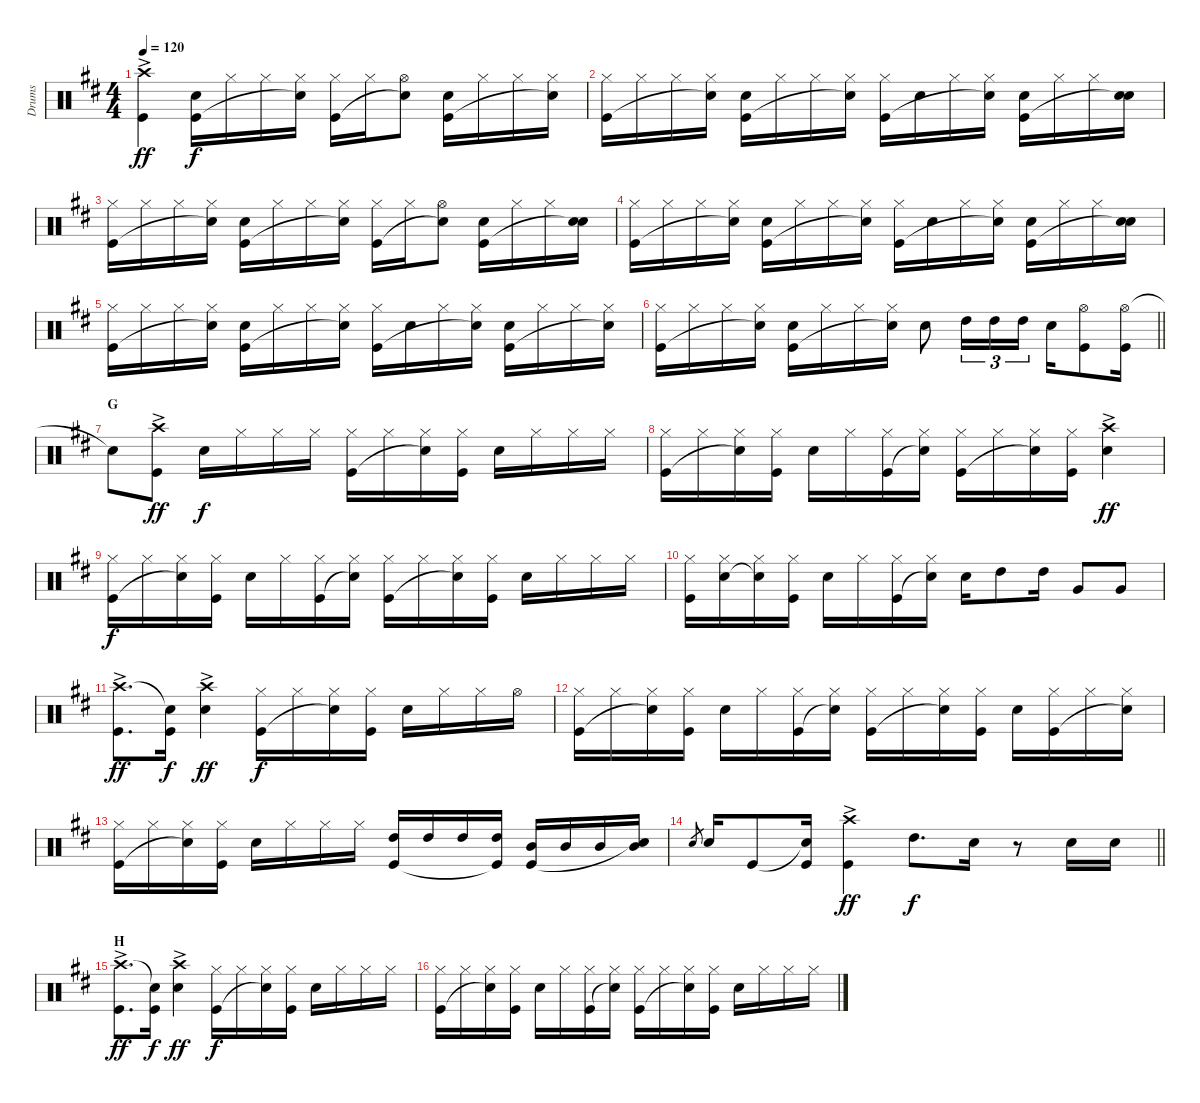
\track ("Drums" "Drums") {instrument percussion}
\staff {score}
\articulation defaults
\ts (4 4)
\tempo 120
\clef neutral
\ks d
("Crash high (hit)"{ac} "Kick (hit)").4{dy ff} ("Snare (hit) 2" "Kick (hit)").16{dy f} "Hi-Hat (closed)".16 "Hi-Hat (closed)".16 ("Hi-Hat (closed)" "Snare (hit)"{t}).16 ("Hi-Hat (closed)" "Kick (hit)").16 "Hi-Hat (closed)".16 ("Hi-Hat (open)" "Snare (hit)"{t}).8 ("Snare (hit) 2" "Kick (hit)").16 "Hi-Hat (closed)".16 "Hi-Hat (closed)".16 ("Hi-Hat (closed)" "Snare (hit)"{t}).16 |
("Hi-Hat (closed)" "Kick (hit)").16 "Hi-Hat (closed)".16 "Hi-Hat (closed)".16 ("Hi-Hat (closed)" "Snare (hit)"{t}).16 ("Snare (hit) 2" "Kick (hit)").16 "Hi-Hat (closed)".16 "Hi-Hat (closed)".16 ("Hi-Hat (closed)" "Snare (hit)"{t}).16 ("Hi-Hat (closed)" "Kick (hit)").16 "Snare (hit) 2".16 "Hi-Hat (closed)".16 ("Hi-Hat (closed)" "Snare (hit)"{t}).16 ("Snare (hit) 2" "Kick (hit)").16 "Hi-Hat (closed)".16 "Hi-Hat (closed)".16 ("Snare (hit) 2" "Snare (hit)"{t}).16 |
("Hi-Hat (closed)" "Kick (hit)").16 "Hi-Hat (closed)".16 "Hi-Hat (closed)".16 ("Hi-Hat (closed)" "Snare (hit)"{t}).16 ("Snare (hit) 2" "Kick (hit)").16 "Hi-Hat (closed)".16 "Hi-Hat (closed)".16 ("Hi-Hat (closed)" "Snare (hit)"{t}).16 ("Hi-Hat (closed)" "Kick (hit)").16 "Hi-Hat (closed)".16 ("Hi-Hat (open)" "Snare (hit)"{t}).8 ("Snare (hit) 2" "Kick (hit)").16 "Hi-Hat (closed)".16 "Hi-Hat (closed)".16 ("Snare (hit) 2" "Snare (hit)"{t}).16 |
("Hi-Hat (closed)" "Kick (hit)").16 "Hi-Hat (closed)".16 "Hi-Hat (closed)".16 ("Hi-Hat (closed)" "Snare (hit)"{t}).16 ("Snare (hit) 2" "Kick (hit)").16 "Hi-Hat (closed)".16 "Hi-Hat (closed)".16 ("Hi-Hat (closed)" "Snare (hit)"{t}).16 ("Hi-Hat (closed)" "Kick (hit)").16 "Snare (hit) 2".16 "Hi-Hat (closed)".16 ("Hi-Hat (closed)" "Snare (hit)"{t}).16 ("Snare (hit) 2" "Kick (hit)").16 "Hi-Hat (closed)".16 "Hi-Hat (closed)".16 ("Snare (hit) 2" "Snare (hit)"{t}).16 |
("Hi-Hat (closed)" "Kick (hit)").16 "Hi-Hat (closed)".16 "Hi-Hat (closed)".16 ("Hi-Hat (closed)" "Snare (hit)"{t}).16 ("Snare (hit) 2" "Kick (hit)").16 "Hi-Hat (closed)".16 "Hi-Hat (closed)".16 ("Hi-Hat (closed)" "Snare (hit)"{t}).16 ("Hi-Hat (closed)" "Kick (hit)").16 "Snare (hit) 2".16 "Hi-Hat (closed)".16 ("Hi-Hat (closed)" "Snare (hit)"{t}).16 ("Snare (hit) 2" "Kick (hit)").16 "Hi-Hat (closed)".16 "Hi-Hat (closed)".16 ("Hi-Hat (closed)" "Snare (hit)"{t}).16 |
\barLineRight lightlight
("Hi-Hat (closed)" "Kick (hit)").16 "Hi-Hat (closed)".16 "Hi-Hat (closed)".16 ("Hi-Hat (closed)" "Snare (hit)"{t}).16 ("Snare (hit) 2" "Kick (hit)").16 "Hi-Hat (closed)".16 "Hi-Hat (closed)".16 ("Hi-Hat (closed)" "Snare (hit)"{t}).16 "Snare (hit) 2".8 "High Tom (hit)".16{tu (3 2)} "High Tom (hit)".16{tu (3 2)} "High Tom (hit)".16{tu (3 2)} "Snare (hit) 2".16 ("Hi-Hat (open)" "Kick (hit)").8 ("Hi-Hat (open)" "Kick (hit)").16 |
\section ("" "G")
"Snare (hit)"{t}.8 ("Crash high (hit)"{ac} "Kick (hit)").8{dy ff} "Snare (hit) 2".16{dy f} "Hi-Hat (closed)".16 "Hi-Hat (closed)".16 "Hi-Hat (closed)".16 ("Hi-Hat (closed)" "Kick (hit)").16 "Hi-Hat (closed)".16 ("Hi-Hat (closed)" "Snare (hit)"{t}).16 ("Hi-Hat (closed)" "Kick (hit)").16 "Snare (hit) 2".16 "Hi-Hat (closed)".16 "Hi-Hat (closed)".16 "Hi-Hat (closed)".16 |
("Hi-Hat (closed)" "Kick (hit)").16 "Hi-Hat (closed)".16 ("Hi-Hat (closed)" "Snare (hit)"{t}).16 ("Hi-Hat (closed)" "Kick (hit)").16 "Snare (hit) 2".16 "Hi-Hat (closed)".16 ("Hi-Hat (closed)" "Kick (hit)").16 ("Hi-Hat (closed)" "Snare (hit)"{t}).16 ("Hi-Hat (closed)" "Kick (hit)").16 "Hi-Hat (closed)".16 ("Hi-Hat (closed)" "Snare (hit)"{t}).16 ("Hi-Hat (closed)" "Kick (hit)").16 ("Crash high (hit)"{ac} "Snare (hit) 2").4{dy ff} |
("Hi-Hat (closed)" "Kick (hit)").16{dy f} "Hi-Hat (closed)".16 ("Hi-Hat (closed)" "Snare (hit)"{t}).16 ("Hi-Hat (closed)" "Kick (hit)").16 "Snare (hit) 2".16 "Hi-Hat (closed)".16 ("Hi-Hat (closed)" "Kick (hit)").16 ("Hi-Hat (closed)" "Snare (hit)"{t}).16 ("Hi-Hat (closed)" "Kick (hit)").16 "Hi-Hat (closed)".16 ("Hi-Hat (closed)" "Snare (hit)"{t}).16 ("Hi-Hat (closed)" "Kick (hit)").16 "Snare (hit) 2".16 "Hi-Hat (closed)".16 "Hi-Hat (closed)".16 "Hi-Hat (closed)".16 |
("Hi-Hat (closed)" "Kick (hit)").16 ("Hi-Hat (closed)" "Snare (hit) 2").16 ("Hi-Hat (closed)" "Snare (hit)"{t}).16 ("Hi-Hat (closed)" "Kick (hit)").16 "Snare (hit) 2".16 "Hi-Hat (closed)".16 ("Hi-Hat (closed)" "Kick (hit)").16 ("Hi-Hat (closed)" "Snare (hit)"{t}).16 "Snare (hit) 2".16 "High Tom (hit)".8 "High Tom (hit)".16 "Very Low Tom (hit)".8 "Very Low Tom (hit)".8 |
("Crash high (hit)"{ac} "Kick (hit)").8{d dy ff} ("Snare (hit)"{t} "Kick (hit)").16{dy f} ("Crash high (hit)"{ac} "Snare (hit) 2").4{dy ff} ("Hi-Hat (closed)" "Kick (hit)").16{dy f} "Hi-Hat (closed)".16 ("Hi-Hat (closed)" "Snare (hit)"{t}).16 ("Hi-Hat (closed)" "Kick (hit)").16 "Snare (hit) 2".16 "Hi-Hat (closed)".16 "Hi-Hat (closed)".16 "Hi-Hat (open)".16 |
("Hi-Hat (closed)" "Kick (hit)").16 "Hi-Hat (closed)".16 ("Hi-Hat (closed)" "Snare (hit)"{t}).16 ("Hi-Hat (closed)" "Kick (hit)").16 "Snare (hit) 2".16 "Hi-Hat (closed)".16 ("Hi-Hat (closed)" "Kick (hit)").16 ("Hi-Hat (closed)" "Snare (hit)"{t}).16 ("Hi-Hat (closed)" "Kick (hit)").16 "Hi-Hat (closed)".16 ("Hi-Hat (closed)" "Snare (hit)"{t}).16 ("Hi-Hat (closed)" "Kick (hit)").16 "Snare (hit) 2".16 ("Hi-Hat (closed)" "Kick (hit)").16 "Hi-Hat (closed)".16 ("Hi-Hat (closed)" "Snare (hit)"{t}).16 |
("Hi-Hat (closed)" "Kick (hit)").16 "Hi-Hat (closed)".16 ("Hi-Hat (closed)" "Snare (hit)"{t}).16 ("Hi-Hat (closed)" "Kick (hit)").16 "Snare (hit) 2".16 "Hi-Hat (closed)".16 "Hi-Hat (closed)".16 "Hi-Hat (closed)".16 ("High Tom (hit)" "Kick (hit)").16 "High Tom (hit)".16 "High Tom (hit)".16 ("High Tom (hit)" "Kick (hit)"{t}).16 ("Mid Tom (hit)" "Kick (hit)").16 "Mid Tom (hit)".16 "Mid Tom (hit)".16 ("Mid Tom (hit)" "Snare (hit)"{t}).16 |
\barLineRight lightlight "Snare (hit) 2".8{gr} "Snare (hit) 2".16 "Kick (hit)".8
("Snare (hit)"{t} "Kick (hit)").16 ("Crash high (hit)"{ac} "Kick (hit)").4{dy ff} "High Tom (hit)".8{d dy f} "Snare (hit) 2".16 r.8 "Snare (hit) 2".16 "Snare (hit) 2".16 |
\section ("" "H")
("Crash high (hit)"{ac} "Kick (hit)").8{d dy ff} ("Snare (hit)"{t} "Kick (hit)").16{dy f} ("Crash high (hit)"{ac} "Snare (hit) 2").4{dy ff} ("Hi-Hat (closed)" "Kick (hit)").16{dy f} "Hi-Hat (closed)".16 ("Hi-Hat (closed)" "Snare (hit)"{t}).16 ("Hi-Hat (closed)" "Kick (hit)").16 "Snare (hit) 2".16 "Hi-Hat (closed)".16 "Hi-Hat (closed)".16 "Hi-Hat (closed)".16 |
("Hi-Hat (closed)" "Kick (hit)").16 "Hi-Hat (closed)".16 ("Hi-Hat (closed)" "Snare (hit)"{t}).16 ("Hi-Hat (closed)" "Kick (hit)").16 "Snare (hit) 2".16 "Hi-Hat (closed)".16 ("Hi-Hat (closed)" "Kick (hit)").16 ("Hi-Hat (closed)" "Snare (hit)"{t}).16 ("Hi-Hat (closed)" "Kick (hit)").16 "Hi-Hat (closed)".16 ("Hi-Hat (closed)" "Snare (hit)"{t}).16 ("Hi-Hat (closed)" "Kick (hit)").16 "Snare (hit) 2".16 "Hi-Hat (closed)".16 "Hi-Hat (closed)".16 "Hi-Hat (closed)".16
